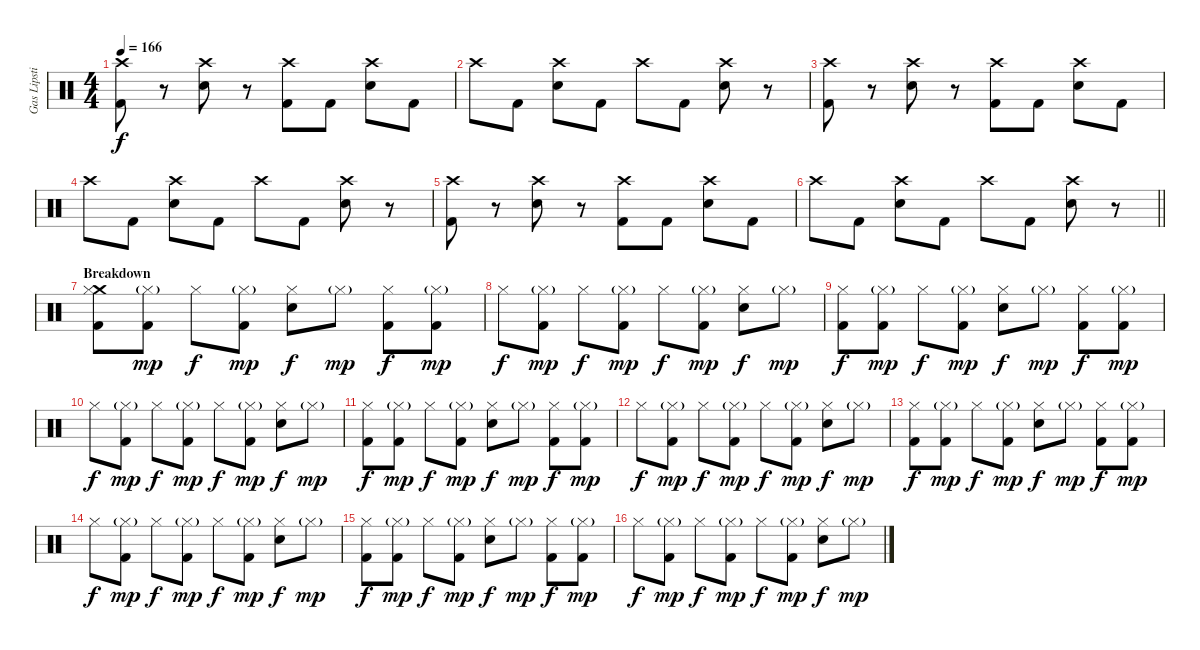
\track ("Gas Lipstick (Drums)" "Gas Lipsti") {instrument percussion}
\staff {score}
\articulation defaults
\ts (4 4)
\tempo 166
\clef neutral
\ks c
("Crash high (hit)" "Kick (hit) 2").8{dy f} r.8 ("Crash high (hit)" "Snare (hit) 2").8 r.8 ("Crash high (hit)" "Kick (hit) 2").8 "Kick (hit) 2".8 ("Crash high (hit)" "Snare (hit) 2").8 "Kick (hit) 2".8 |
"Crash high (hit)".8 "Kick (hit) 2".8 ("Crash high (hit)" "Snare (hit) 2").8 "Kick (hit) 2".8 "Crash high (hit)".8 "Kick (hit) 2".8 ("Crash high (hit)" "Snare (hit) 2").8 r.8 |
("Crash high (hit)" "Kick (hit) 2").8 r.8 ("Crash high (hit)" "Snare (hit) 2").8 r.8 ("Crash high (hit)" "Kick (hit) 2").8 "Kick (hit) 2".8 ("Crash high (hit)" "Snare (hit) 2").8 "Kick (hit) 2".8 |
"Crash high (hit)".8 "Kick (hit) 2".8 ("Crash high (hit)" "Snare (hit) 2").8 "Kick (hit) 2".8 "Crash high (hit)".8 "Kick (hit) 2".8 ("Crash high (hit)" "Snare (hit) 2").8 r.8 |
("Crash high (hit)" "Kick (hit) 2").8 r.8 ("Crash high (hit)" "Snare (hit) 2").8 r.8 ("Crash high (hit)" "Kick (hit) 2").8 "Kick (hit) 2".8 ("Crash high (hit)" "Snare (hit) 2").8 "Kick (hit) 2".8 |
\barLineRight lightlight "Crash high (hit)".8 "Kick (hit) 2".8
("Crash high (hit)" "Snare (hit) 2").8 "Kick (hit) 2".8 "Crash high (hit)".8 "Kick (hit) 2".8 ("Crash high (hit)" "Snare (hit) 2").8 r.8 |
\section ("" "Breakdown")
("Crash medium (hit)" "Hi-Hat (closed)" "Kick (hit) 2").8 ("Hi-Hat (closed)"{g} "Kick (hit) 2").8{dy mp} "Hi-Hat (closed)".8{dy f} ("Hi-Hat (closed)"{g} "Kick (hit) 2").8{dy mp} ("Hi-Hat (closed)" "Snare (hit) 2").8{dy f} "Hi-Hat (closed)"{g}.8{dy mp} ("Hi-Hat (closed)" "Kick (hit) 2").8{dy f} ("Hi-Hat (closed)"{g} "Kick (hit) 2").8{dy mp} |
"Hi-Hat (closed)".8{dy f} ("Hi-Hat (closed)"{g} "Kick (hit) 2").8{dy mp} "Hi-Hat (closed)".8{dy f} ("Hi-Hat (closed)"{g} "Kick (hit) 2").8{dy mp} "Hi-Hat (closed)".8{dy f} ("Hi-Hat (closed)"{g} "Kick (hit) 2").8{dy mp} ("Hi-Hat (closed)" "Snare (hit) 2").8{dy f} "Hi-Hat (closed)"{g}.8{dy mp} |
("Hi-Hat (closed)" "Kick (hit) 2").8{dy f} ("Hi-Hat (closed)"{g} "Kick (hit) 2").8{dy mp} "Hi-Hat (closed)".8{dy f} ("Hi-Hat (closed)"{g} "Kick (hit) 2").8{dy mp} ("Hi-Hat (closed)" "Snare (hit) 2").8{dy f} "Hi-Hat (closed)"{g}.8{dy mp} ("Hi-Hat (closed)" "Kick (hit) 2").8{dy f} ("Hi-Hat (closed)"{g} "Kick (hit) 2").8{dy mp} |
"Hi-Hat (closed)".8{dy f} ("Hi-Hat (closed)"{g} "Kick (hit) 2").8{dy mp} "Hi-Hat (closed)".8{dy f} ("Hi-Hat (closed)"{g} "Kick (hit) 2").8{dy mp} "Hi-Hat (closed)".8{dy f} ("Hi-Hat (closed)"{g} "Kick (hit) 2").8{dy mp} ("Hi-Hat (closed)" "Snare (hit) 2").8{dy f} "Hi-Hat (closed)"{g}.8{dy mp} |
("Hi-Hat (closed)" "Kick (hit) 2").8{dy f} ("Hi-Hat (closed)"{g} "Kick (hit) 2").8{dy mp} "Hi-Hat (closed)".8{dy f} ("Hi-Hat (closed)"{g} "Kick (hit) 2").8{dy mp} ("Hi-Hat (closed)" "Snare (hit) 2").8{dy f} "Hi-Hat (closed)"{g}.8{dy mp} ("Hi-Hat (closed)" "Kick (hit) 2").8{dy f} ("Hi-Hat (closed)"{g} "Kick (hit) 2").8{dy mp} |
"Hi-Hat (closed)".8{dy f} ("Hi-Hat (closed)"{g} "Kick (hit) 2").8{dy mp} "Hi-Hat (closed)".8{dy f} ("Hi-Hat (closed)"{g} "Kick (hit) 2").8{dy mp} "Hi-Hat (closed)".8{dy f} ("Hi-Hat (closed)"{g} "Kick (hit) 2").8{dy mp} ("Hi-Hat (closed)" "Snare (hit) 2").8{dy f} "Hi-Hat (closed)"{g}.8{dy mp} |
("Hi-Hat (closed)" "Kick (hit) 2").8{dy f} ("Hi-Hat (closed)"{g} "Kick (hit) 2").8{dy mp} "Hi-Hat (closed)".8{dy f} ("Hi-Hat (closed)"{g} "Kick (hit) 2").8{dy mp} ("Hi-Hat (closed)" "Snare (hit) 2").8{dy f} "Hi-Hat (closed)"{g}.8{dy mp} ("Hi-Hat (closed)" "Kick (hit) 2").8{dy f} ("Hi-Hat (closed)"{g} "Kick (hit) 2").8{dy mp} |
"Hi-Hat (closed)".8{dy f} ("Hi-Hat (closed)"{g} "Kick (hit) 2").8{dy mp} "Hi-Hat (closed)".8{dy f} ("Hi-Hat (closed)"{g} "Kick (hit) 2").8{dy mp} "Hi-Hat (closed)".8{dy f} ("Hi-Hat (closed)"{g} "Kick (hit) 2").8{dy mp} ("Hi-Hat (closed)" "Snare (hit) 2").8{dy f} "Hi-Hat (closed)"{g}.8{dy mp} |
("Hi-Hat (closed)" "Kick (hit) 2").8{dy f} ("Hi-Hat (closed)"{g} "Kick (hit) 2").8{dy mp} "Hi-Hat (closed)".8{dy f} ("Hi-Hat (closed)"{g} "Kick (hit) 2").8{dy mp} ("Hi-Hat (closed)" "Snare (hit) 2").8{dy f} "Hi-Hat (closed)"{g}.8{dy mp} ("Hi-Hat (closed)" "Kick (hit) 2").8{dy f} ("Hi-Hat (closed)"{g} "Kick (hit) 2").8{dy mp} |
"Hi-Hat (closed)".8{dy f} ("Hi-Hat (closed)"{g} "Kick (hit) 2").8{dy mp} "Hi-Hat (closed)".8{dy f} ("Hi-Hat (closed)"{g} "Kick (hit) 2").8{dy mp} "Hi-Hat (closed)".8{dy f} ("Hi-Hat (closed)"{g} "Kick (hit) 2").8{dy mp} ("Hi-Hat (closed)" "Snare (hit) 2").8{dy f} "Hi-Hat (closed)"{g}.8{dy mp}
